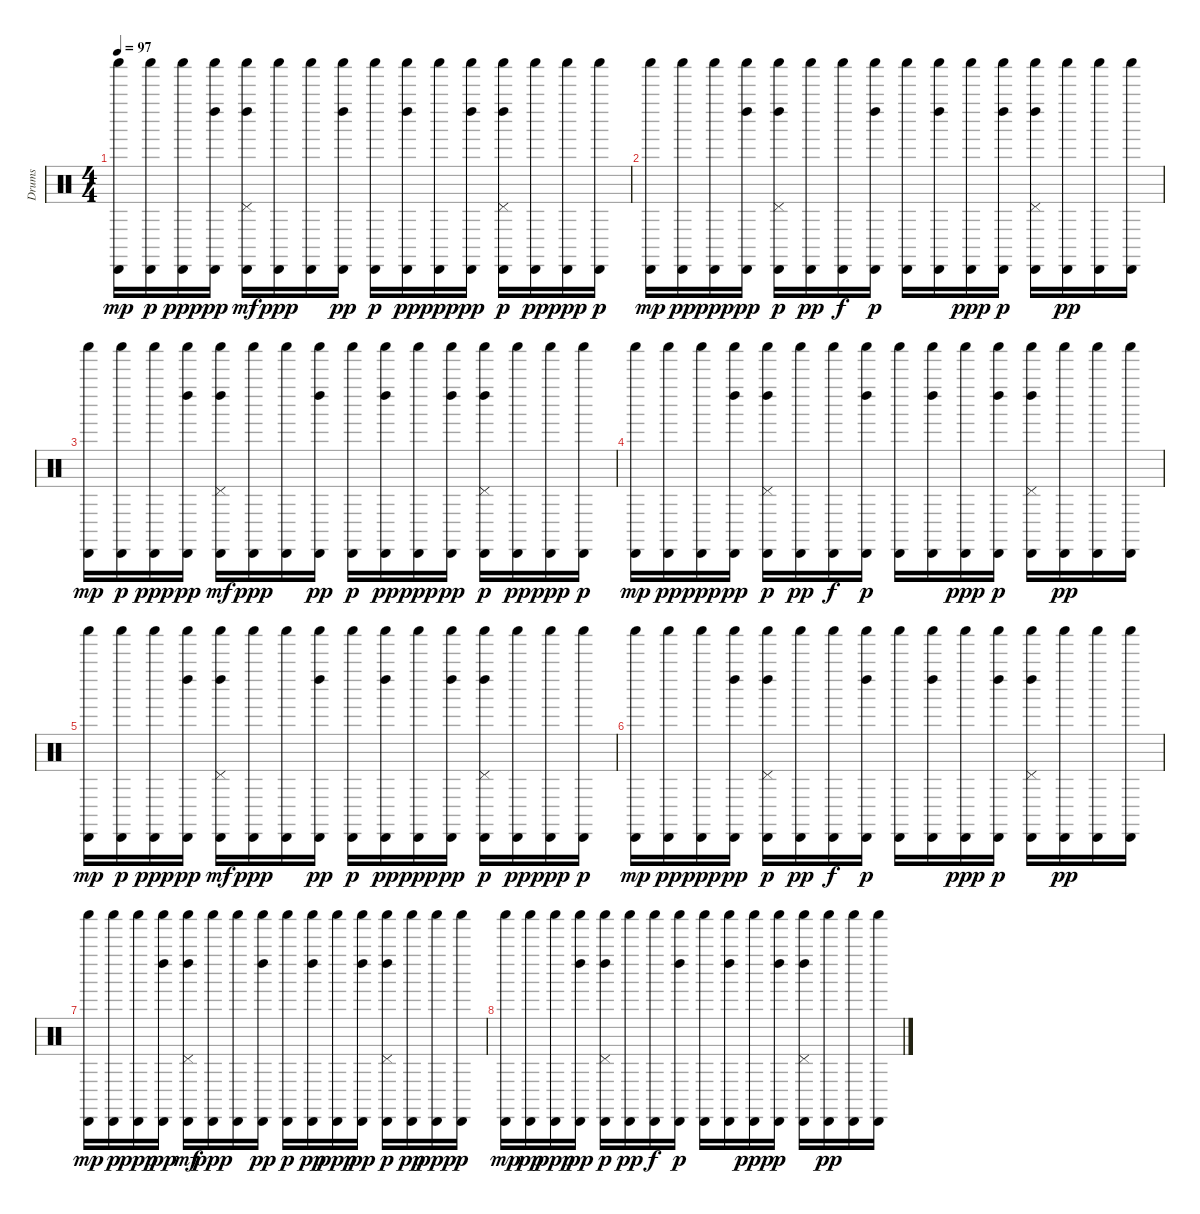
\track ("Drums" "Drums") {instrument percussion}
\staff {score}
\articulation defaults
\ts (4 4)
\tempo 97
\clef neutral
\ks c
("Shaker (hit)" "Cabasa (hit)").16{dy mp} ("Shaker (hit)" "Cabasa (hit)").16{dy p} ("Shaker (hit)" "Cabasa (hit)").16{dy ppp} ("Shaker (hit)" "Cabasa (hit)" "Left Maraca (hit)").16{dy pp} ("Left Maraca (hit)" "Shaker (hit)" "Cabasa (hit)" "Pedal Hi-Hat (hit)").16{dy mf} ("Cabasa (hit)" "Shaker (hit)").16{dy ppp} ("Shaker (hit)" "Cabasa (hit)").16 ("Left Maraca (hit)" "Cabasa (hit)" "Shaker (hit)").16{dy pp} ("Cabasa (hit)" "Shaker (hit)").16{dy p} ("Left Maraca (hit)" "Cabasa (hit)" "Shaker (hit)").16{dy pp} ("Shaker (hit)" "Cabasa (hit)").16{dy ppp} ("Shaker (hit)" "Cabasa (hit)" "Left Maraca (hit)").16{dy pp} ("Left Maraca (hit)" "Shaker (hit)" "Cabasa (hit)" "Pedal Hi-Hat (hit)").16{dy p} ("Cabasa (hit)" "Shaker (hit)").16{dy pp} ("Shaker (hit)" "Cabasa (hit)").16{dy ppp} ("Shaker (hit)" "Cabasa (hit)").16{dy p} |
("Shaker (hit)" "Cabasa (hit)").16{dy mp} ("Cabasa (hit)" "Shaker (hit)").16{dy pp} ("Shaker (hit)" "Cabasa (hit)").16{dy ppp} ("Shaker (hit)" "Cabasa (hit)" "Left Maraca (hit)").16{dy pp} ("Shaker (hit)" "Cabasa (hit)" "Pedal Hi-Hat (hit)" "Left Maraca (hit)").16{dy p} ("Shaker (hit)" "Cabasa (hit)").16{dy pp} ("Shaker (hit)" "Cabasa (hit)").16{dy f} ("Shaker (hit)" "Cabasa (hit)" "Left Maraca (hit)").16{dy p} ("Cabasa (hit)" "Shaker (hit)").16 ("Shaker (hit)" "Cabasa (hit)" "Left Maraca (hit)").16 ("Shaker (hit)" "Cabasa (hit)").16{dy ppp} ("Shaker (hit)" "Cabasa (hit)" "Left Maraca (hit)").16{dy p} ("Pedal Hi-Hat (hit)" "Shaker (hit)" "Cabasa (hit)" "Left Maraca (hit)").16 ("Shaker (hit)" "Cabasa (hit)").16{dy pp} ("Cabasa (hit)" "Shaker (hit)").16 ("Cabasa (hit)" "Shaker (hit)").16 |
("Shaker (hit)" "Cabasa (hit)").16{dy mp} ("Shaker (hit)" "Cabasa (hit)").16{dy p} ("Shaker (hit)" "Cabasa (hit)").16{dy ppp} ("Shaker (hit)" "Cabasa (hit)" "Left Maraca (hit)").16{dy pp} ("Left Maraca (hit)" "Shaker (hit)" "Cabasa (hit)" "Pedal Hi-Hat (hit)").16{dy mf} ("Cabasa (hit)" "Shaker (hit)").16{dy ppp} ("Shaker (hit)" "Cabasa (hit)").16 ("Left Maraca (hit)" "Cabasa (hit)" "Shaker (hit)").16{dy pp} ("Cabasa (hit)" "Shaker (hit)").16{dy p} ("Left Maraca (hit)" "Cabasa (hit)" "Shaker (hit)").16{dy pp} ("Shaker (hit)" "Cabasa (hit)").16{dy ppp} ("Shaker (hit)" "Cabasa (hit)" "Left Maraca (hit)").16{dy pp} ("Left Maraca (hit)" "Shaker (hit)" "Cabasa (hit)" "Pedal Hi-Hat (hit)").16{dy p} ("Cabasa (hit)" "Shaker (hit)").16{dy pp} ("Shaker (hit)" "Cabasa (hit)").16{dy ppp} ("Shaker (hit)" "Cabasa (hit)").16{dy p} |
("Shaker (hit)" "Cabasa (hit)").16{dy mp} ("Cabasa (hit)" "Shaker (hit)").16{dy pp} ("Shaker (hit)" "Cabasa (hit)").16{dy ppp} ("Shaker (hit)" "Cabasa (hit)" "Left Maraca (hit)").16{dy pp} ("Shaker (hit)" "Cabasa (hit)" "Pedal Hi-Hat (hit)" "Left Maraca (hit)").16{dy p} ("Shaker (hit)" "Cabasa (hit)").16{dy pp} ("Shaker (hit)" "Cabasa (hit)").16{dy f} ("Shaker (hit)" "Cabasa (hit)" "Left Maraca (hit)").16{dy p} ("Cabasa (hit)" "Shaker (hit)").16 ("Shaker (hit)" "Cabasa (hit)" "Left Maraca (hit)").16 ("Shaker (hit)" "Cabasa (hit)").16{dy ppp} ("Shaker (hit)" "Cabasa (hit)" "Left Maraca (hit)").16{dy p} ("Pedal Hi-Hat (hit)" "Shaker (hit)" "Cabasa (hit)" "Left Maraca (hit)").16 ("Shaker (hit)" "Cabasa (hit)").16{dy pp} ("Cabasa (hit)" "Shaker (hit)").16 ("Cabasa (hit)" "Shaker (hit)").16 |
("Shaker (hit)" "Cabasa (hit)").16{dy mp} ("Shaker (hit)" "Cabasa (hit)").16{dy p} ("Shaker (hit)" "Cabasa (hit)").16{dy ppp} ("Shaker (hit)" "Cabasa (hit)" "Left Maraca (hit)").16{dy pp} ("Left Maraca (hit)" "Shaker (hit)" "Cabasa (hit)" "Pedal Hi-Hat (hit)").16{dy mf} ("Cabasa (hit)" "Shaker (hit)").16{dy ppp} ("Shaker (hit)" "Cabasa (hit)").16 ("Left Maraca (hit)" "Cabasa (hit)" "Shaker (hit)").16{dy pp} ("Cabasa (hit)" "Shaker (hit)").16{dy p} ("Left Maraca (hit)" "Cabasa (hit)" "Shaker (hit)").16{dy pp} ("Shaker (hit)" "Cabasa (hit)").16{dy ppp} ("Shaker (hit)" "Cabasa (hit)" "Left Maraca (hit)").16{dy pp} ("Left Maraca (hit)" "Shaker (hit)" "Cabasa (hit)" "Pedal Hi-Hat (hit)").16{dy p} ("Cabasa (hit)" "Shaker (hit)").16{dy pp} ("Shaker (hit)" "Cabasa (hit)").16{dy ppp} ("Shaker (hit)" "Cabasa (hit)").16{dy p} |
("Shaker (hit)" "Cabasa (hit)").16{dy mp} ("Cabasa (hit)" "Shaker (hit)").16{dy pp} ("Shaker (hit)" "Cabasa (hit)").16{dy ppp} ("Shaker (hit)" "Cabasa (hit)" "Left Maraca (hit)").16{dy pp} ("Shaker (hit)" "Cabasa (hit)" "Pedal Hi-Hat (hit)" "Left Maraca (hit)").16{dy p} ("Shaker (hit)" "Cabasa (hit)").16{dy pp} ("Shaker (hit)" "Cabasa (hit)").16{dy f} ("Shaker (hit)" "Cabasa (hit)" "Left Maraca (hit)").16{dy p} ("Cabasa (hit)" "Shaker (hit)").16 ("Shaker (hit)" "Cabasa (hit)" "Left Maraca (hit)").16 ("Shaker (hit)" "Cabasa (hit)").16{dy ppp} ("Shaker (hit)" "Cabasa (hit)" "Left Maraca (hit)").16{dy p} ("Pedal Hi-Hat (hit)" "Shaker (hit)" "Cabasa (hit)" "Left Maraca (hit)").16 ("Shaker (hit)" "Cabasa (hit)").16{dy pp} ("Cabasa (hit)" "Shaker (hit)").16 ("Cabasa (hit)" "Shaker (hit)").16 |
("Shaker (hit)" "Cabasa (hit)").16{dy mp} ("Shaker (hit)" "Cabasa (hit)").16{dy p} ("Shaker (hit)" "Cabasa (hit)").16{dy ppp} ("Shaker (hit)" "Cabasa (hit)" "Left Maraca (hit)").16{dy pp} ("Left Maraca (hit)" "Shaker (hit)" "Cabasa (hit)" "Pedal Hi-Hat (hit)").16{dy mf} ("Cabasa (hit)" "Shaker (hit)").16{dy ppp} ("Shaker (hit)" "Cabasa (hit)").16 ("Left Maraca (hit)" "Cabasa (hit)" "Shaker (hit)").16{dy pp} ("Cabasa (hit)" "Shaker (hit)").16{dy p} ("Left Maraca (hit)" "Cabasa (hit)" "Shaker (hit)").16{dy pp} ("Shaker (hit)" "Cabasa (hit)").16{dy ppp} ("Shaker (hit)" "Cabasa (hit)" "Left Maraca (hit)").16{dy pp} ("Left Maraca (hit)" "Shaker (hit)" "Cabasa (hit)" "Pedal Hi-Hat (hit)").16{dy p} ("Cabasa (hit)" "Shaker (hit)").16{dy pp} ("Shaker (hit)" "Cabasa (hit)").16{dy ppp} ("Shaker (hit)" "Cabasa (hit)").16{dy p} |
("Shaker (hit)" "Cabasa (hit)").16{dy mp} ("Cabasa (hit)" "Shaker (hit)").16{dy pp} ("Shaker (hit)" "Cabasa (hit)").16{dy ppp} ("Shaker (hit)" "Cabasa (hit)" "Left Maraca (hit)").16{dy pp} ("Shaker (hit)" "Cabasa (hit)" "Pedal Hi-Hat (hit)" "Left Maraca (hit)").16{dy p} ("Shaker (hit)" "Cabasa (hit)").16{dy pp} ("Shaker (hit)" "Cabasa (hit)").16{dy f} ("Shaker (hit)" "Cabasa (hit)" "Left Maraca (hit)").16{dy p} ("Cabasa (hit)" "Shaker (hit)").16 ("Shaker (hit)" "Cabasa (hit)" "Left Maraca (hit)").16 ("Shaker (hit)" "Cabasa (hit)").16{dy ppp} ("Shaker (hit)" "Cabasa (hit)" "Left Maraca (hit)").16{dy p} ("Pedal Hi-Hat (hit)" "Shaker (hit)" "Cabasa (hit)" "Left Maraca (hit)").16 ("Shaker (hit)" "Cabasa (hit)").16{dy pp} ("Cabasa (hit)" "Shaker (hit)").16 ("Cabasa (hit)" "Shaker (hit)").16
